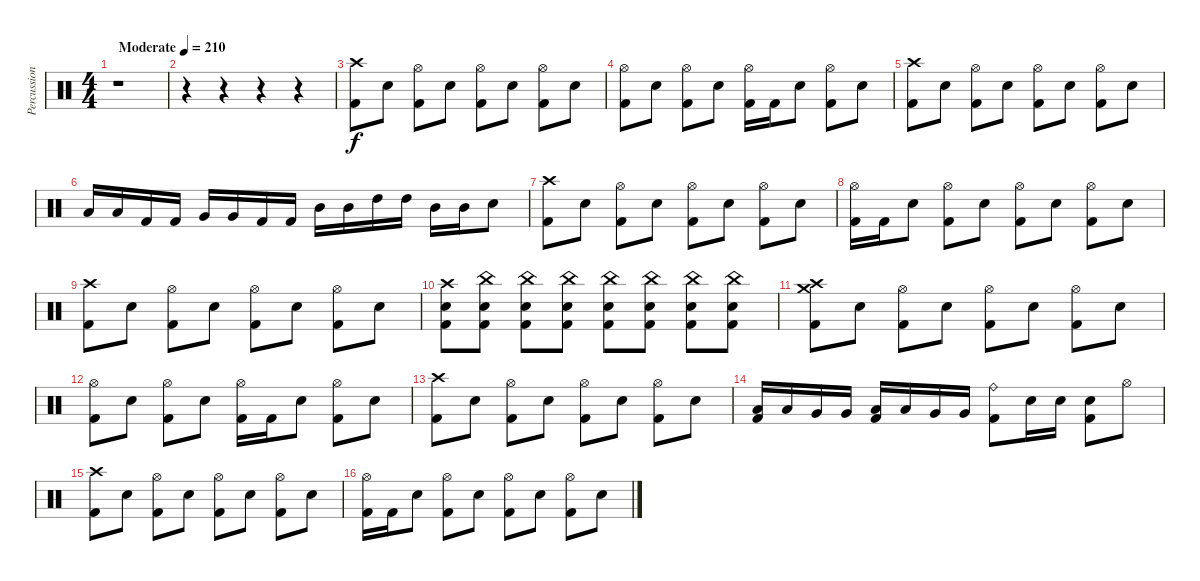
\track ("Percussion" "Percussion") {instrument percussion}
\staff {score}
\articulation defaults
\ts (4 4)
\tempo (210 "Moderate")
\clef neutral
\ks c
r.1{dy f} |
r.4 r.4 r.4 r.4 |
("Crash high (hit)" "Kick (hit) 2").8 "Electric Snare (hit)".8 ("Hi-Hat (open)" "Kick (hit) 2").8 "Electric Snare (hit)".8 ("Hi-Hat (open)" "Kick (hit) 2").8 "Electric Snare (hit)".8 ("Hi-Hat (open)" "Kick (hit) 2").8 "Electric Snare (hit)".8 |
("Hi-Hat (open)" "Kick (hit) 2").8 "Electric Snare (hit)".8 ("Hi-Hat (open)" "Kick (hit) 2").8 "Electric Snare (hit)".8 ("Hi-Hat (open)" "Kick (hit) 2").16 "Kick (hit) 2".16 "Electric Snare (hit)".8 ("Hi-Hat (open)" "Kick (hit) 2").8 "Electric Snare (hit)".8 |
("Crash high (hit)" "Kick (hit) 2").8 "Electric Snare (hit)".8 ("Hi-Hat (open)" "Kick (hit) 2").8 "Electric Snare (hit)".8 ("Hi-Hat (open)" "Kick (hit) 2").8 "Electric Snare (hit)".8 ("Hi-Hat (open)" "Kick (hit) 2").8 "Electric Snare (hit)".8 |
"Low Tom (hit)".16 "Low Tom (hit)".16 "Kick (hit) 2".16 "Kick (hit) 2".16 "Very Low Tom (hit)".16 "Very Low Tom (hit)".16 "Kick (hit) 2".16 "Kick (hit) 2".16 "Mid Tom (hit)".16 "Mid Tom (hit)".16 "High Tom (hit)".16 "High Tom (hit)".16 "Mid Tom (hit)".16 "Mid Tom (hit)".16 "Electric Snare (hit)".8 |
("Crash high (hit)" "Kick (hit) 2").8 "Electric Snare (hit)".8 ("Hi-Hat (open)" "Kick (hit) 2").8 "Electric Snare (hit)".8 ("Hi-Hat (open)" "Kick (hit) 2").8 "Electric Snare (hit)".8 ("Hi-Hat (open)" "Kick (hit) 2").8 "Electric Snare (hit)".8 |
("Hi-Hat (open)" "Kick (hit) 2").16 "Kick (hit) 2".16 "Electric Snare (hit)".8 ("Hi-Hat (open)" "Kick (hit) 2").8 "Electric Snare (hit)".8 ("Hi-Hat (open)" "Kick (hit) 2").8 "Electric Snare (hit)".8 ("Hi-Hat (open)" "Kick (hit) 2").8 "Electric Snare (hit)".8 |
("Crash high (hit)" "Kick (hit) 2").8 "Electric Snare (hit)".8 ("Hi-Hat (open)" "Kick (hit) 2").8 "Electric Snare (hit)".8 ("Hi-Hat (open)" "Kick (hit) 2").8 "Electric Snare (hit)".8 ("Hi-Hat (open)" "Kick (hit) 2").8 "Electric Snare (hit)".8 |
("Crash high (hit)" "Electric Snare (hit)" "Kick (hit) 2").8 ("China (hit)" "Electric Snare (hit)" "Kick (hit) 2").8 ("China (hit)" "Electric Snare (hit)" "Kick (hit) 2").8 ("China (hit)" "Electric Snare (hit)" "Kick (hit) 2").8 ("China (hit)" "Electric Snare (hit)" "Kick (hit) 2").8 ("China (hit)" "Electric Snare (hit)" "Kick (hit) 2").8 ("China (hit)" "Electric Snare (hit)" "Kick (hit) 2").8 ("China (hit)" "Electric Snare (hit)" "Kick (hit) 2").8 |
("Crash high (hit)" "Crash medium (hit)" "Kick (hit) 2").8 "Electric Snare (hit)".8 ("Hi-Hat (open)" "Kick (hit) 2").8 "Electric Snare (hit)".8 ("Hi-Hat (open)" "Kick (hit) 2").8 "Electric Snare (hit)".8 ("Hi-Hat (open)" "Kick (hit) 2").8 "Electric Snare (hit)".8 |
("Hi-Hat (open)" "Kick (hit) 2").8 "Electric Snare (hit)".8 ("Hi-Hat (open)" "Kick (hit) 2").8 "Electric Snare (hit)".8 ("Hi-Hat (open)" "Kick (hit) 2").16 "Kick (hit) 2".16 "Electric Snare (hit)".8 ("Hi-Hat (open)" "Kick (hit) 2").8 "Electric Snare (hit)".8 |
("Crash high (hit)" "Kick (hit) 2").8 "Electric Snare (hit)".8 ("Hi-Hat (open)" "Kick (hit) 2").8 "Electric Snare (hit)".8 ("Hi-Hat (open)" "Kick (hit) 2").8 "Electric Snare (hit)".8 ("Hi-Hat (open)" "Kick (hit) 2").8 "Electric Snare (hit)".8 |
("Low Tom (hit)" "Kick (hit) 2").16 "Low Tom (hit)".16 "Very Low Tom (hit)".16 "Very Low Tom (hit)".16 ("Low Tom (hit)" "Kick (hit) 2").16 "Low Tom (hit)".16 "Very Low Tom (hit)".16 "Very Low Tom (hit)".16 ("Ride (bell)" "Kick (hit) 2").8 "Electric Snare (hit)".16 "Electric Snare (hit)".16 ("Electric Snare (hit)" "Kick (hit) 2").8 "Hi-Hat (open)".8 |
("Crash high (hit)" "Kick (hit) 2").8 "Electric Snare (hit)".8 ("Hi-Hat (open)" "Kick (hit) 2").8 "Electric Snare (hit)".8 ("Hi-Hat (open)" "Kick (hit) 2").8 "Electric Snare (hit)".8 ("Hi-Hat (open)" "Kick (hit) 2").8 "Electric Snare (hit)".8 |
("Hi-Hat (open)" "Kick (hit) 2").16 "Kick (hit) 2".16 "Electric Snare (hit)".8 ("Hi-Hat (open)" "Kick (hit) 2").8 "Electric Snare (hit)".8 ("Hi-Hat (open)" "Kick (hit) 2").8 "Electric Snare (hit)".8 ("Hi-Hat (open)" "Kick (hit) 2").8 "Electric Snare (hit)".8
